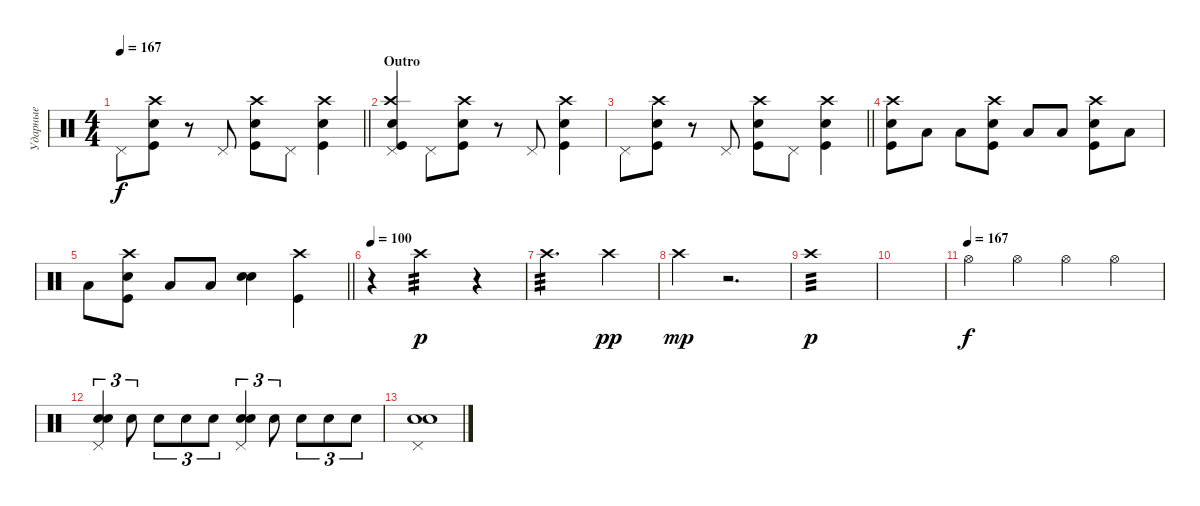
\track ("Ударные" "Ударные") {instrument percussion}
\staff {score}
\articulation defaults
\ts (4 4)
\tempo 167
\clef neutral
\barLineRight lightlight
\ks aminor "Pedal Hi-Hat (hit)".8{dy f}
("Crash high (hit)" "Kick (hit)" "Snare (hit) 2").8 r.8 "Pedal Hi-Hat (hit)".8 ("Kick (hit)" "Snare (hit) 2" "Crash high (hit)").8 "Pedal Hi-Hat (hit)".8 ("Kick (hit)" "Snare (hit) 2" "Crash high (hit)").4 |
\section ("" "Outro")
("Snare (hit) 2" "Crash high (hit)" "Kick (hit)" "Pedal Hi-Hat (hit)").4 "Pedal Hi-Hat (hit)".8 ("Crash high (hit)" "Kick (hit)" "Snare (hit) 2").8 r.8 "Pedal Hi-Hat (hit)".8 ("Crash high (hit)" "Snare (hit) 2" "Kick (hit)").4 |
\barLineRight lightlight "Pedal Hi-Hat (hit)".8
("Crash high (hit)" "Kick (hit)" "Snare (hit) 2").8 r.8 "Pedal Hi-Hat (hit)".8 ("Crash high (hit)" "Snare (hit) 2" "Kick (hit)").8 "Pedal Hi-Hat (hit)".8 ("Kick (hit)" "Crash high (hit)" "Snare (hit) 2").4 |
("Kick (hit)" "Snare (hit) 2" "Crash high (hit)").8 "Low Floor Tom (hit)".8 "Low Floor Tom (hit)".8 ("Snare (hit) 2" "Crash high (hit)" "Kick (hit)").8 "Low Floor Tom (hit)".8 "Low Floor Tom (hit)".8 ("Snare (hit) 2" "Kick (hit)" "Crash high (hit)").8 "Low Floor Tom (hit)".8 |
\barLineRight lightlight "Low Floor Tom (hit)".8
("Snare (hit) 2" "Kick (hit)" "Crash high (hit)").8 "Low Floor Tom (hit)".8 "Low Floor Tom (hit)".8 ("Snare (hit) 2" "Snare (hit) 2").4 ("Kick (hit)" "Crash high (hit)").4 |
\tempo 100
r.4 "Crash high (hit)".2{tp 3 dy p} r.4 |
"Crash high (hit)".2{d tp 3} "Crash high (hit)".4{dy pp} |
"Crash high (hit)".4{dy mp} r.2{d} |
"Crash high (hit)".1{tp 3 dy p} |
|
\tempo (167)
"Hi-Hat (open)".4{dy f} "Hi-Hat (open)".4 "Hi-Hat (open)".4 "Hi-Hat (open)".4 |
("Snare (hit) 2" "Snare (hit) 2" "Pedal Hi-Hat (hit)").4{tu (3 2) bd 120} "Snare (hit) 2".8{tu (3 2)} "Snare (hit) 2".8{tu (3 2)} "Snare (hit) 2".8{tu (3 2)} "Snare (hit) 2".8{tu (3 2)} ("Snare (hit) 2" "Snare (hit) 2" "Pedal Hi-Hat (hit)").4{tu (3 2) bd 120} "Snare (hit) 2".8{tu (3 2)} "Snare (hit) 2".8{tu (3 2)} "Snare (hit) 2".8{tu (3 2)} "Snare (hit) 2".8{tu (3 2)} |
("Snare (hit) 2" "Snare (hit) 2" "Pedal Hi-Hat (hit)").1{bd 240}
